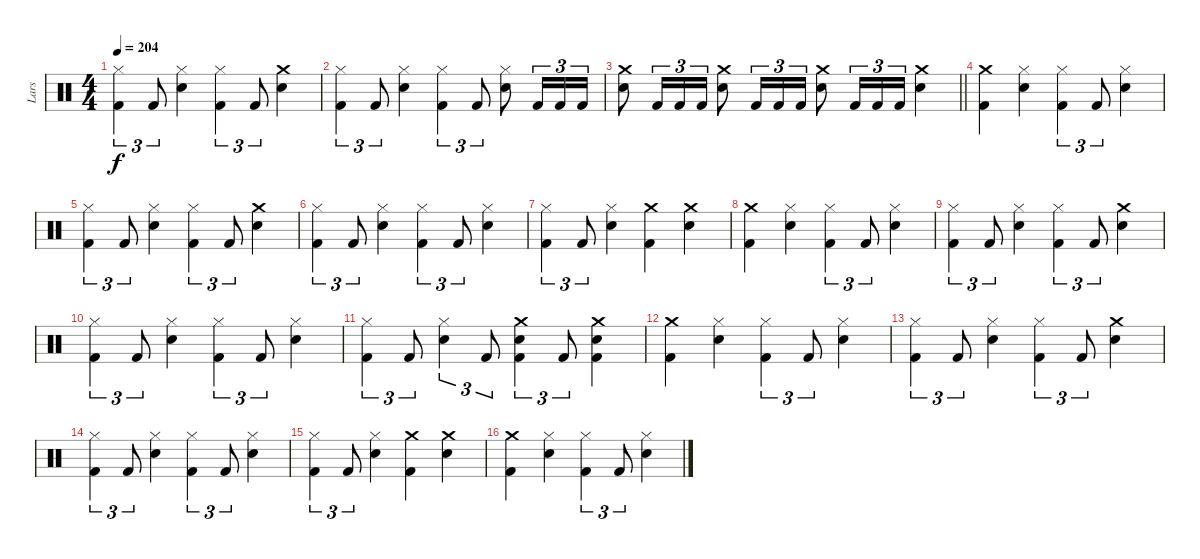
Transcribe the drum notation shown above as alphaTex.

\track ("Lars" "Lars") {instrument percussion}
\staff {score}
\articulation defaults
\ts (4 4)
\tempo 204
\clef neutral
\ks c
("Hi-Hat (closed)" "Kick (hit) 2").4{tu (3 2) dy f} "Kick (hit) 2".8{tu (3 2)} ("Snare (hit) 2" "Hi-Hat (closed)").4 ("Hi-Hat (closed)" "Kick (hit) 2").4{tu (3 2)} "Kick (hit) 2".8{tu (3 2)} ("Crash medium (hit)" "Snare (hit) 2").4 |
("Hi-Hat (closed)" "Kick (hit) 2").4{tu (3 2)} "Kick (hit) 2".8{tu (3 2)} ("Snare (hit) 2" "Hi-Hat (closed)").4 ("Hi-Hat (closed)" "Kick (hit) 2").4{tu (3 2)} "Kick (hit) 2".8{tu (3 2)} ("Snare (hit) 2" "Hi-Hat (closed)").8 "Kick (hit) 2".16{tu (3 2)} "Kick (hit) 2".16{tu (3 2)} "Kick (hit) 2".16{tu (3 2)} |
\barLineRight lightlight
("Crash medium (hit)" "Snare (hit) 2").8 "Kick (hit) 2".16{tu (3 2)} "Kick (hit) 2".16{tu (3 2)} "Kick (hit) 2".16{tu (3 2)} ("Crash medium (hit)" "Snare (hit) 2").8 "Kick (hit) 2".16{tu (3 2)} "Kick (hit) 2".16{tu (3 2)} "Kick (hit) 2".16{tu (3 2)} ("Crash medium (hit)" "Snare (hit) 2").8 "Kick (hit) 2".16{tu (3 2)} "Kick (hit) 2".16{tu (3 2)} "Kick (hit) 2".16{tu (3 2)} ("Snare (hit) 2" "Crash medium (hit)").4 |
("Kick (hit) 2" "Crash medium (hit)").4 ("Hi-Hat (closed)" "Snare (hit) 2").4 ("Hi-Hat (closed)" "Kick (hit) 2").4{tu (3 2)} "Kick (hit) 2".8{tu (3 2)} ("Snare (hit) 2" "Hi-Hat (closed)").4 |
("Hi-Hat (closed)" "Kick (hit) 2").4{tu (3 2)} "Kick (hit) 2".8{tu (3 2)} ("Snare (hit) 2" "Hi-Hat (closed)").4 ("Hi-Hat (closed)" "Kick (hit) 2").4{tu (3 2)} "Kick (hit) 2".8{tu (3 2)} ("Crash medium (hit)" "Snare (hit) 2").4 |
("Hi-Hat (closed)" "Kick (hit) 2").4{tu (3 2)} "Kick (hit) 2".8{tu (3 2)} ("Snare (hit) 2" "Hi-Hat (closed)").4 ("Hi-Hat (closed)" "Kick (hit) 2").4{tu (3 2)} "Kick (hit) 2".8{tu (3 2)} ("Snare (hit) 2" "Hi-Hat (closed)").4 |
("Hi-Hat (closed)" "Kick (hit) 2").4{tu (3 2)} "Kick (hit) 2".8{tu (3 2)} ("Snare (hit) 2" "Hi-Hat (closed)").4 ("Crash medium (hit)" "Kick (hit) 2").4 ("Crash medium (hit)" "Snare (hit) 2").4 |
("Kick (hit) 2" "Crash medium (hit)").4 ("Hi-Hat (closed)" "Snare (hit) 2").4 ("Hi-Hat (closed)" "Kick (hit) 2").4{tu (3 2)} "Kick (hit) 2".8{tu (3 2)} ("Snare (hit) 2" "Hi-Hat (closed)").4 |
("Hi-Hat (closed)" "Kick (hit) 2").4{tu (3 2)} "Kick (hit) 2".8{tu (3 2)} ("Snare (hit) 2" "Hi-Hat (closed)").4 ("Hi-Hat (closed)" "Kick (hit) 2").4{tu (3 2)} "Kick (hit) 2".8{tu (3 2)} ("Crash medium (hit)" "Snare (hit) 2").4 |
("Hi-Hat (closed)" "Kick (hit) 2").4{tu (3 2)} "Kick (hit) 2".8{tu (3 2)} ("Snare (hit) 2" "Hi-Hat (closed)").4 ("Hi-Hat (closed)" "Kick (hit) 2").4{tu (3 2)} "Kick (hit) 2".8{tu (3 2)} ("Snare (hit) 2" "Hi-Hat (closed)").4 |
("Hi-Hat (closed)" "Kick (hit) 2").4{tu (3 2)} "Kick (hit) 2".8{tu (3 2)} ("Snare (hit) 2" "Hi-Hat (closed)").4{tu (3 2)} "Kick (hit) 2".8{tu (3 2)} ("Snare (hit) 2" "Crash medium (hit)" "Kick (hit) 2").4{tu (3 2)} "Kick (hit) 2".8{tu (3 2)} ("Kick (hit) 2" "Crash medium (hit)" "Snare (hit) 2").4 |
("Kick (hit) 2" "Crash medium (hit)").4 ("Hi-Hat (closed)" "Snare (hit) 2").4 ("Hi-Hat (closed)" "Kick (hit) 2").4{tu (3 2)} "Kick (hit) 2".8{tu (3 2)} ("Snare (hit) 2" "Hi-Hat (closed)").4 |
("Hi-Hat (closed)" "Kick (hit) 2").4{tu (3 2)} "Kick (hit) 2".8{tu (3 2)} ("Snare (hit) 2" "Hi-Hat (closed)").4 ("Hi-Hat (closed)" "Kick (hit) 2").4{tu (3 2)} "Kick (hit) 2".8{tu (3 2)} ("Crash medium (hit)" "Snare (hit) 2").4 |
("Hi-Hat (closed)" "Kick (hit) 2").4{tu (3 2)} "Kick (hit) 2".8{tu (3 2)} ("Snare (hit) 2" "Hi-Hat (closed)").4 ("Hi-Hat (closed)" "Kick (hit) 2").4{tu (3 2)} "Kick (hit) 2".8{tu (3 2)} ("Snare (hit) 2" "Hi-Hat (closed)").4 |
("Hi-Hat (closed)" "Kick (hit) 2").4{tu (3 2)} "Kick (hit) 2".8{tu (3 2)} ("Snare (hit) 2" "Hi-Hat (closed)").4 ("Crash medium (hit)" "Kick (hit) 2").4 ("Crash medium (hit)" "Snare (hit) 2").4 |
("Kick (hit) 2" "Crash medium (hit)").4 ("Hi-Hat (closed)" "Snare (hit) 2").4 ("Hi-Hat (closed)" "Kick (hit) 2").4{tu (3 2)} "Kick (hit) 2".8{tu (3 2)} ("Snare (hit) 2" "Hi-Hat (closed)").4
